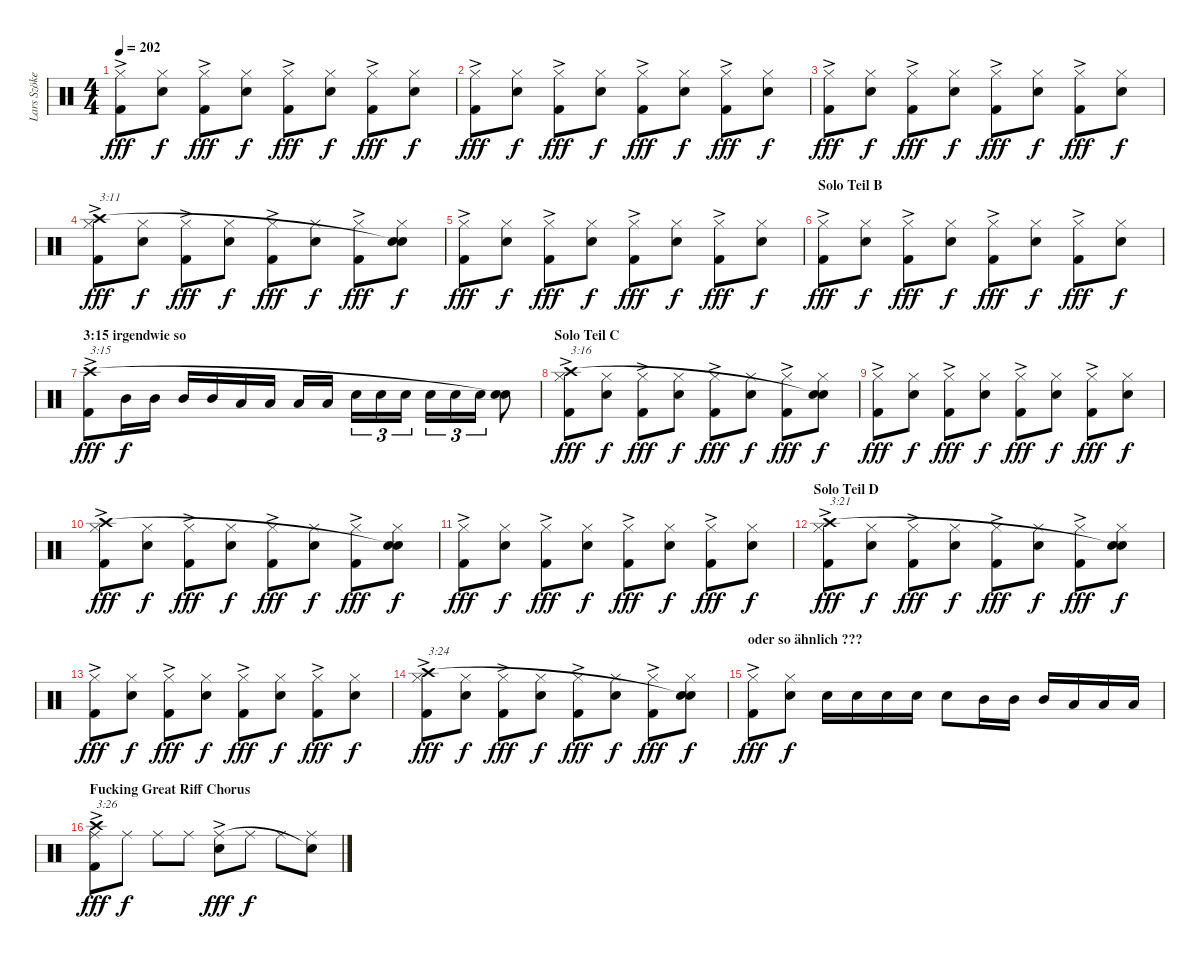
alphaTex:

\track ("Lars Szöke" "Lars Szöke") {instrument percussion}
\staff {score}
\articulation defaults
\ts (4 4)
\tempo 202
\clef neutral
\ks c
("Kick (hit) 2"{ac} "Hi-Hat (closed)").8{dy fff} ("Snare (hit) 2" "Hi-Hat (closed)").8{dy f} ("Kick (hit) 2"{ac} "Hi-Hat (closed)").8{dy fff} ("Snare (hit) 2" "Hi-Hat (closed)").8{dy f} ("Kick (hit) 2"{ac} "Hi-Hat (closed)").8{dy fff} ("Snare (hit) 2" "Hi-Hat (closed)").8{dy f} ("Kick (hit) 2"{ac} "Hi-Hat (closed)").8{dy fff} ("Snare (hit) 2" "Hi-Hat (closed)").8{dy f} |
("Kick (hit) 2"{ac} "Hi-Hat (closed)").8{dy fff} ("Snare (hit) 2" "Hi-Hat (closed)").8{dy f} ("Kick (hit) 2"{ac} "Hi-Hat (closed)").8{dy fff} ("Snare (hit) 2" "Hi-Hat (closed)").8{dy f} ("Kick (hit) 2"{ac} "Hi-Hat (closed)").8{dy fff} ("Snare (hit) 2" "Hi-Hat (closed)").8{dy f} ("Kick (hit) 2"{ac} "Hi-Hat (closed)").8{dy fff} ("Snare (hit) 2" "Hi-Hat (closed)").8{dy f} |
("Kick (hit) 2"{ac} "Hi-Hat (closed)").8{dy fff} ("Snare (hit) 2" "Hi-Hat (closed)").8{dy f} ("Kick (hit) 2"{ac} "Hi-Hat (closed)").8{dy fff} ("Snare (hit) 2" "Hi-Hat (closed)").8{dy f} ("Kick (hit) 2"{ac} "Hi-Hat (closed)").8{dy fff} ("Snare (hit) 2" "Hi-Hat (closed)").8{dy f} ("Kick (hit) 2"{ac} "Hi-Hat (closed)").8{dy fff} ("Snare (hit) 2" "Hi-Hat (closed)").8{dy f} |
("Kick (hit) 2"{ac} "Hi-Hat (closed)" "Crash high (hit)"{ac}).8{txt "3:11" dy fff} ("Snare (hit) 2" "Hi-Hat (closed)").8{dy f} ("Kick (hit) 2"{ac} "Hi-Hat (closed)").8{dy fff} ("Snare (hit) 2" "Hi-Hat (closed)").8{dy f} ("Kick (hit) 2"{ac} "Hi-Hat (closed)").8{dy fff} ("Snare (hit) 2" "Hi-Hat (closed)").8{dy f} ("Kick (hit) 2"{ac} "Hi-Hat (closed)").8{dy fff} ("Snare (hit) 2" "Hi-Hat (closed)" "Snare (hit)"{t}).8{dy f} |
("Kick (hit) 2"{ac} "Hi-Hat (closed)").8{dy fff} ("Snare (hit) 2" "Hi-Hat (closed)").8{dy f} ("Kick (hit) 2"{ac} "Hi-Hat (closed)").8{dy fff} ("Snare (hit) 2" "Hi-Hat (closed)").8{dy f} ("Kick (hit) 2"{ac} "Hi-Hat (closed)").8{dy fff} ("Snare (hit) 2" "Hi-Hat (closed)").8{dy f} ("Kick (hit) 2"{ac} "Hi-Hat (closed)").8{dy fff} ("Snare (hit) 2" "Hi-Hat (closed)").8{dy f} |
\section ("" "Solo Teil B")
("Kick (hit) 2"{ac} "Hi-Hat (closed)").8{dy fff} ("Snare (hit) 2" "Hi-Hat (closed)").8{dy f} ("Kick (hit) 2"{ac} "Hi-Hat (closed)").8{dy fff} ("Snare (hit) 2" "Hi-Hat (closed)").8{dy f} ("Kick (hit) 2"{ac} "Hi-Hat (closed)").8{dy fff} ("Snare (hit) 2" "Hi-Hat (closed)").8{dy f} ("Kick (hit) 2"{ac} "Hi-Hat (closed)").8{dy fff} ("Snare (hit) 2" "Hi-Hat (closed)").8{dy f} |
\section ("" "3:15 irgendwie so ")
("Kick (hit) 2"{ac} "Crash high (hit)").8{txt "3:15" dy fff} "Mid Tom (hit)".16{dy f} "Mid Tom (hit)".16 "Mid Tom (hit)".16 "Mid Tom (hit)".16 "Low Tom (hit)".16 "Low Tom (hit)".16 "Low Tom (hit)".16 "Low Tom (hit)".16 "Snare (hit) 2".16{tu (3 2)} "Snare (hit) 2".16{tu (3 2)} "Snare (hit) 2".16{tu (3 2)} "Snare (hit) 2".16{tu (3 2)} "Snare (hit) 2".16{tu (3 2)} "Snare (hit) 2".16{tu (3 2)} ("Snare (hit) 2" "Snare (hit)"{t}).8 |
\section ("" "Solo Teil C")
("Kick (hit) 2"{ac} "Hi-Hat (closed)" "Crash high (hit)").8{txt "3:16" dy fff} ("Snare (hit) 2" "Hi-Hat (closed)").8{dy f} ("Kick (hit) 2"{ac} "Hi-Hat (closed)").8{dy fff} ("Snare (hit) 2" "Hi-Hat (closed)").8{dy f} ("Kick (hit) 2"{ac} "Hi-Hat (closed)").8{dy fff} ("Snare (hit) 2" "Hi-Hat (closed)").8{dy f} ("Kick (hit) 2"{ac} "Hi-Hat (closed)").8{dy fff} ("Snare (hit) 2" "Hi-Hat (closed)" "Snare (hit)"{t}).8{dy f} |
("Kick (hit) 2"{ac} "Hi-Hat (closed)").8{dy fff} ("Snare (hit) 2" "Hi-Hat (closed)").8{dy f} ("Kick (hit) 2"{ac} "Hi-Hat (closed)").8{dy fff} ("Snare (hit) 2" "Hi-Hat (closed)").8{dy f} ("Kick (hit) 2"{ac} "Hi-Hat (closed)").8{dy fff} ("Snare (hit) 2" "Hi-Hat (closed)").8{dy f} ("Kick (hit) 2"{ac} "Hi-Hat (closed)").8{dy fff} ("Snare (hit) 2" "Hi-Hat (closed)").8{dy f} |
("Kick (hit) 2"{ac} "Hi-Hat (closed)" "Crash high (hit)").8{dy fff} ("Snare (hit) 2" "Hi-Hat (closed)").8{dy f} ("Kick (hit) 2"{ac} "Hi-Hat (closed)").8{dy fff} ("Snare (hit) 2" "Hi-Hat (closed)").8{dy f} ("Kick (hit) 2"{ac} "Hi-Hat (closed)").8{dy fff} ("Snare (hit) 2" "Hi-Hat (closed)").8{dy f} ("Kick (hit) 2"{ac} "Hi-Hat (closed)").8{dy fff} ("Snare (hit) 2" "Hi-Hat (closed)" "Snare (hit)"{t}).8{dy f} |
("Kick (hit) 2"{ac} "Hi-Hat (closed)").8{dy fff} ("Snare (hit) 2" "Hi-Hat (closed)").8{dy f} ("Kick (hit) 2"{ac} "Hi-Hat (closed)").8{dy fff} ("Snare (hit) 2" "Hi-Hat (closed)").8{dy f} ("Kick (hit) 2"{ac} "Hi-Hat (closed)").8{dy fff} ("Snare (hit) 2" "Hi-Hat (closed)").8{dy f} ("Kick (hit) 2"{ac} "Hi-Hat (closed)").8{dy fff} ("Snare (hit) 2" "Hi-Hat (closed)").8{dy f} |
\section ("" "Solo Teil D")
("Kick (hit) 2"{ac} "Hi-Hat (closed)" "Crash high (hit)").8{txt "3:21" dy fff} ("Snare (hit) 2" "Hi-Hat (closed)").8{dy f} ("Kick (hit) 2"{ac} "Hi-Hat (closed)").8{dy fff} ("Snare (hit) 2" "Hi-Hat (closed)").8{dy f} ("Kick (hit) 2"{ac} "Hi-Hat (closed)").8{dy fff} ("Snare (hit) 2" "Hi-Hat (closed)").8{dy f} ("Kick (hit) 2"{ac} "Hi-Hat (closed)").8{dy fff} ("Snare (hit) 2" "Hi-Hat (closed)" "Snare (hit)"{t}).8{dy f} |
("Kick (hit) 2"{ac} "Hi-Hat (closed)").8{dy fff} ("Snare (hit) 2" "Hi-Hat (closed)").8{dy f} ("Kick (hit) 2"{ac} "Hi-Hat (closed)").8{dy fff} ("Snare (hit) 2" "Hi-Hat (closed)").8{dy f} ("Kick (hit) 2"{ac} "Hi-Hat (closed)").8{dy fff} ("Snare (hit) 2" "Hi-Hat (closed)").8{dy f} ("Kick (hit) 2"{ac} "Hi-Hat (closed)").8{dy fff} ("Snare (hit) 2" "Hi-Hat (closed)").8{dy f} |
("Kick (hit) 2"{ac} "Hi-Hat (closed)" "Crash high (hit)").8{txt "3:24" dy fff} ("Snare (hit) 2" "Hi-Hat (closed)").8{dy f} ("Kick (hit) 2"{ac} "Hi-Hat (closed)").8{dy fff} ("Snare (hit) 2" "Hi-Hat (closed)").8{dy f} ("Kick (hit) 2"{ac} "Hi-Hat (closed)").8{dy fff} ("Snare (hit) 2" "Hi-Hat (closed)").8{dy f} ("Kick (hit) 2"{ac} "Hi-Hat (closed)").8{dy fff} ("Snare (hit) 2" "Hi-Hat (closed)" "Snare (hit)"{t}).8{dy f} |
\section ("" "oder so ähnlich ???")
("Kick (hit) 2"{ac} "Hi-Hat (closed)").8{dy fff} ("Snare (hit) 2" "Hi-Hat (closed)").8{dy f} "Snare (hit) 2".16 "Snare (hit) 2".16 "Snare (hit) 2".16 "Snare (hit) 2".16 "Snare (hit) 2".8 "Mid Tom (hit)".16 "Mid Tom (hit)".16 "Mid Tom (hit)".16 "Low Tom (hit)".16 "Low Tom (hit)".16 "Low Tom (hit)".16 |
\section ("" "Fucking Great Riff Chorus")
("Kick (hit) 2"{ac} "Ride (middle)" "Crash high (hit)").8{txt "3:26" dy fff} "Ride (middle)".8{dy f} "Ride (middle)".8 "Ride (middle)".8 ("Snare (hit) 2"{ac} "Ride (middle)").8{dy fff} "Ride (middle)".8{dy f} "Ride (middle)".8 ("Ride (middle)" "Snare (hit)"{t}).8
